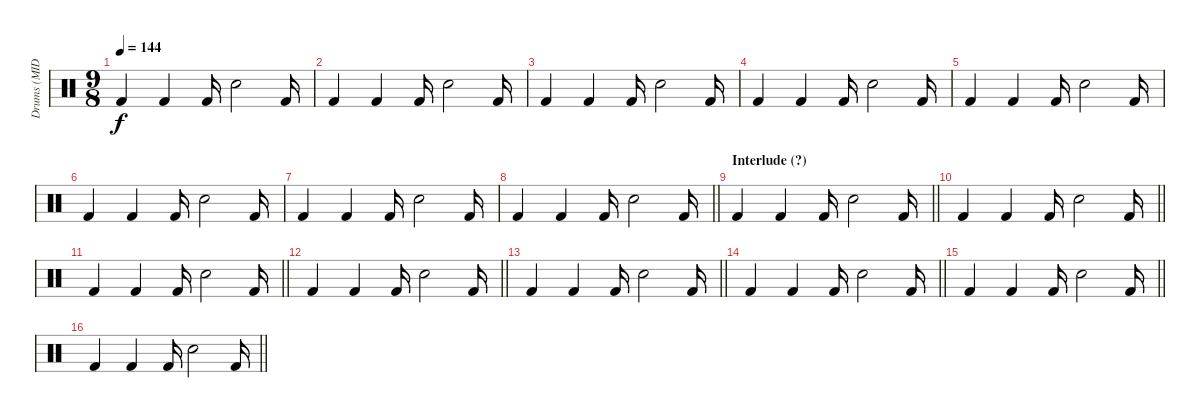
\track ("Drums (MIDI!)" "Drums (MID") {instrument percussion}
\staff {score}
\articulation defaults
\ts (9 8)
\tempo 144
\clef neutral
\ks c "Kick (hit) 2".4{dy f} "Kick (hit) 2".4 "Kick (hit) 2".16 "Electric Snare (hit)".2 "Kick (hit) 2".16
|
"Kick (hit) 2".4 "Kick (hit) 2".4 "Kick (hit) 2".16 "Electric Snare (hit)".2 "Kick (hit) 2".16 |
"Kick (hit) 2".4 "Kick (hit) 2".4 "Kick (hit) 2".16 "Electric Snare (hit)".2 "Kick (hit) 2".16 |
"Kick (hit) 2".4 "Kick (hit) 2".4 "Kick (hit) 2".16 "Electric Snare (hit)".2 "Kick (hit) 2".16 |
"Kick (hit) 2".4 "Kick (hit) 2".4 "Kick (hit) 2".16 "Electric Snare (hit)".2 "Kick (hit) 2".16 |
"Kick (hit) 2".4 "Kick (hit) 2".4 "Kick (hit) 2".16 "Electric Snare (hit)".2 "Kick (hit) 2".16 |
"Kick (hit) 2".4 "Kick (hit) 2".4 "Kick (hit) 2".16 "Electric Snare (hit)".2 "Kick (hit) 2".16 |
\barLineRight lightlight "Kick (hit) 2".4 "Kick (hit) 2".4 "Kick (hit) 2".16 "Electric Snare (hit)".2 "Kick (hit) 2".16
|
\section ("" "Interlude (?)")
\barLineRight lightlight "Kick (hit) 2".4 "Kick (hit) 2".4 "Kick (hit) 2".16 "Electric Snare (hit)".2 "Kick (hit) 2".16
|
\barLineRight lightlight "Kick (hit) 2".4 "Kick (hit) 2".4 "Kick (hit) 2".16 "Electric Snare (hit)".2 "Kick (hit) 2".16
|
\barLineRight lightlight "Kick (hit) 2".4 "Kick (hit) 2".4 "Kick (hit) 2".16 "Electric Snare (hit)".2 "Kick (hit) 2".16
|
\barLineRight lightlight "Kick (hit) 2".4 "Kick (hit) 2".4 "Kick (hit) 2".16 "Electric Snare (hit)".2 "Kick (hit) 2".16
|
\barLineRight lightlight "Kick (hit) 2".4 "Kick (hit) 2".4 "Kick (hit) 2".16 "Electric Snare (hit)".2 "Kick (hit) 2".16
|
\barLineRight lightlight "Kick (hit) 2".4 "Kick (hit) 2".4 "Kick (hit) 2".16 "Electric Snare (hit)".2 "Kick (hit) 2".16
|
\barLineRight lightlight "Kick (hit) 2".4 "Kick (hit) 2".4 "Kick (hit) 2".16 "Electric Snare (hit)".2 "Kick (hit) 2".16
|
\barLineRight lightlight "Kick (hit) 2".4 "Kick (hit) 2".4 "Kick (hit) 2".16 "Electric Snare (hit)".2 "Kick (hit) 2".16
